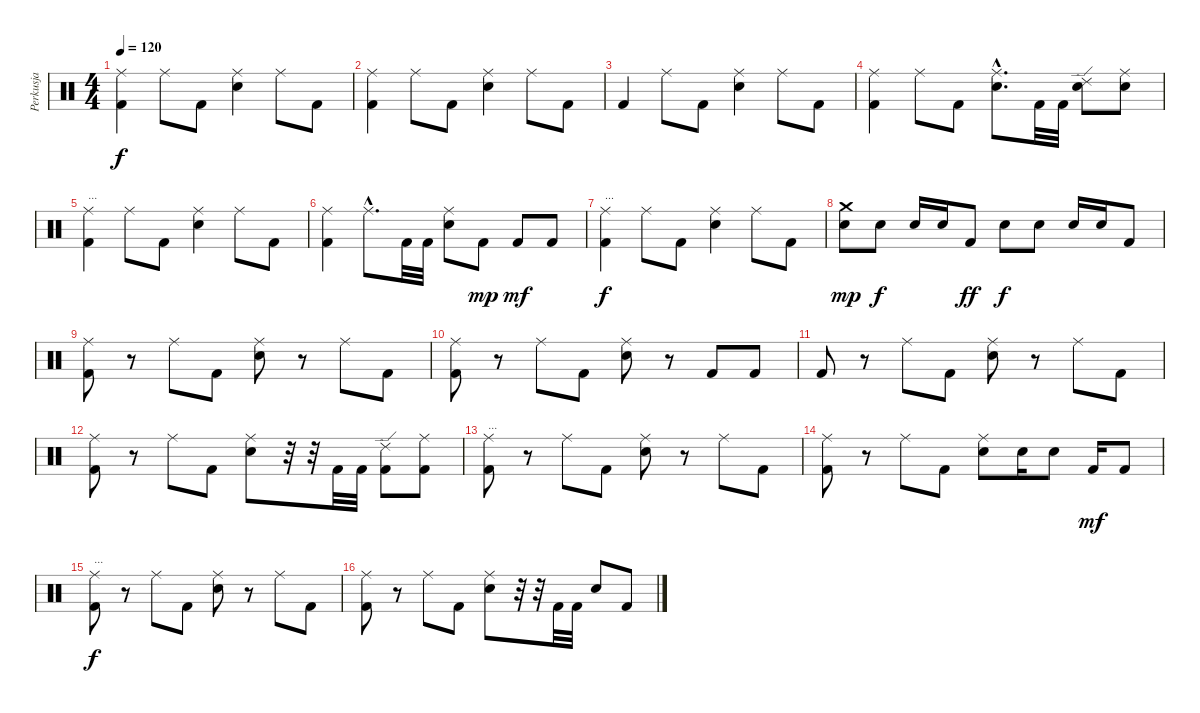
\track ("Perkusja" "Perkusja") {instrument percussion}
\staff {score}
\articulation defaults
\ts (4 4)
\tempo 120
\clef neutral
\ks c
("Ride (middle)" "Kick (hit) 2").4{dy f} "Ride (middle)".8 "Kick (hit) 2".8 ("Ride (middle)" "Snare (hit) 2").4 "Ride (middle)".8 "Kick (hit) 2".8 |
("Ride (middle)" "Kick (hit) 2").4 "Ride (middle)".8 "Kick (hit) 2".8 ("Ride (middle)" "Snare (hit) 2").4 "Ride (middle)".8 "Kick (hit) 2".8 |
"Kick (hit) 2".4 "Ride (middle)".8 "Kick (hit) 2".8 ("Ride (middle)" "Snare (hit) 2").4 "Ride (middle)".8 "Kick (hit) 2".8 |
("Ride (middle)" "Kick (hit) 2").4 "Ride (middle)".8 "Kick (hit) 2".8 ("Ride (middle)"{hac} "Snare (hit) 2"{hac}).8{d} "Kick (hit) 2".32 "Kick (hit) 2".32 ("Ride (edge) 2" "Snare (hit) 2").8 ("Ride (middle)" "Snare (hit) 2").8 |
("Ride (middle)" "Kick (hit) 2").4{txt "..."} "Ride (middle)".8 "Kick (hit) 2".8 ("Ride (middle)" "Snare (hit) 2").4 "Ride (middle)".8 "Kick (hit) 2".8 |
("Ride (middle)" "Kick (hit) 2").4 "Ride (middle)"{hac}.8{d} "Kick (hit) 2".32 "Kick (hit) 2".32 ("Ride (middle)" "Snare (hit) 2").8 "Kick (hit) 2".8{dy mp} "Kick (hit) 2".8{dy mf} "Kick (hit) 2".8 |
("Ride (middle)" "Kick (hit) 2").4{txt "..." dy f} "Ride (middle)".8 "Kick (hit) 2".8 ("Ride (middle)" "Snare (hit) 2").4 "Ride (middle)".8 "Kick (hit) 2".8 |
("Crash medium (hit)" "Snare (hit) 2").8{dy mp} "Snare (hit) 2".8{dy f} "Snare (hit) 2".16 "Snare (hit) 2".16 "Kick (hit) 2".8{dy ff} "Snare (hit) 2".8{dy f} "Snare (hit) 2".8 "Snare (hit) 2".16 "Snare (hit) 2".16 "Kick (hit) 2".8 |
("Ride (middle)" "Kick (hit) 2").8 r.8 "Ride (middle)".8 "Kick (hit) 2".8 ("Ride (middle)" "Snare (hit) 2").8 r.8 "Ride (middle)".8 "Kick (hit) 2".8 |
("Ride (middle)" "Kick (hit) 2").8 r.8 "Ride (middle)".8 "Kick (hit) 2".8 ("Ride (middle)" "Snare (hit) 2").8 r.8 "Kick (hit) 2".8 "Kick (hit) 2".8 |
"Kick (hit) 2".8 r.8 "Ride (middle)".8 "Kick (hit) 2".8 ("Ride (middle)" "Snare (hit) 2").8 r.8 "Ride (middle)".8 "Kick (hit) 2".8 |
("Ride (middle)" "Kick (hit) 2").8 r.8 "Ride (middle)".8 "Kick (hit) 2".8 ("Ride (middle)" "Snare (hit) 2").8 r.32 r.32 "Kick (hit) 2".32 "Kick (hit) 2".32 ("Ride (edge) 2" "Kick (hit) 2").8 ("Ride (middle)" "Kick (hit) 2").8 |
("Ride (middle)" "Kick (hit) 2").8{txt "..."} r.8 "Ride (middle)".8 "Kick (hit) 2".8 ("Ride (middle)" "Snare (hit) 2").8 r.8 "Ride (middle)".8 "Kick (hit) 2".8 |
("Ride (middle)" "Kick (hit) 2").8 r.8 "Ride (middle)".8 "Kick (hit) 2".8 ("Ride (middle)" "Electric Snare (hit)").8 "Electric Snare (hit)".16 "Electric Snare (hit)".8 "Kick (hit) 2".16{dy mf} "Kick (hit) 2".8 |
("Ride (middle)" "Kick (hit) 2").8{txt "..." dy f} r.8 "Ride (middle)".8 "Kick (hit) 2".8 ("Ride (middle)" "Snare (hit) 2").8 r.8 "Ride (middle)".8 "Kick (hit) 2".8 |
("Ride (middle)" "Kick (hit) 2").8 r.8 "Ride (middle)".8 "Kick (hit) 2".8 ("Ride (middle)" "Snare (hit) 2").8 r.32 r.32 "Kick (hit) 2".32 "Kick (hit) 2".32 "Snare (hit) 2".8 "Kick (hit) 2".8
